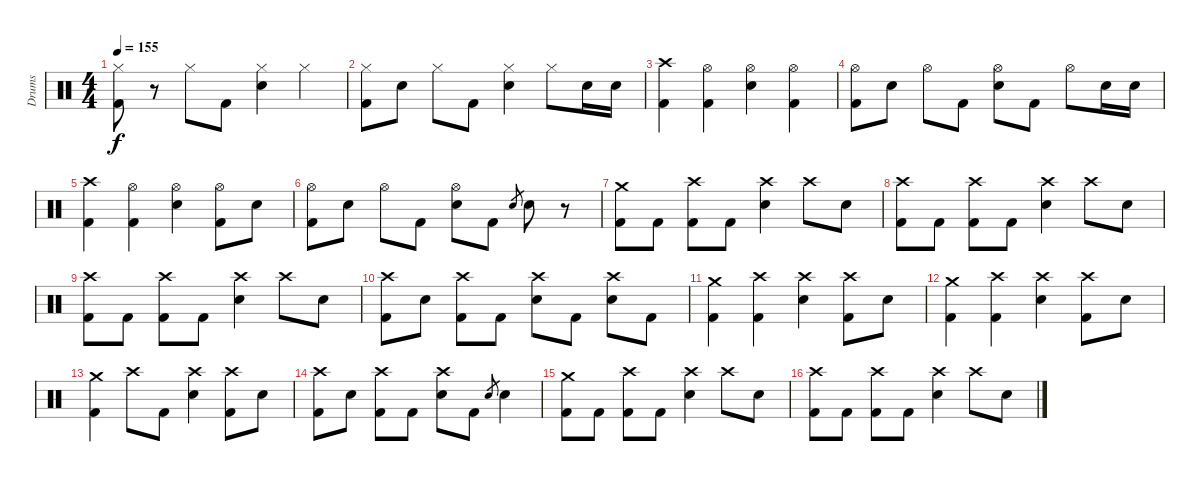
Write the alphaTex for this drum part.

\track ("Drums" "Drums") {instrument percussion}
\staff {score}
\articulation defaults
\ts (4 4)
\tempo 155
\clef neutral
\ks c
("Hi-Hat (closed)" "Kick (hit) 2").8{dy f} r.8 "Hi-Hat (closed)".8 "Kick (hit) 2".8 ("Hi-Hat (closed)" "Snare (hit) 2").4 "Hi-Hat (closed)".4 |
("Hi-Hat (closed)" "Kick (hit) 2").8 "Snare (hit) 2".8 "Hi-Hat (closed)".8 "Kick (hit) 2".8 ("Hi-Hat (closed)" "Snare (hit) 2").4 "Hi-Hat (closed)".8 "Snare (hit) 2".16 "Snare (hit) 2".16 |
("Crash high (hit)" "Kick (hit) 2").4 ("Hi-Hat (open)" "Kick (hit) 2").4 ("Hi-Hat (open)" "Snare (hit) 2").4 ("Hi-Hat (open)" "Kick (hit) 2").4 |
("Hi-Hat (open)" "Kick (hit) 2").8 "Snare (hit) 2".8 "Hi-Hat (open)".8 "Kick (hit) 2".8 ("Hi-Hat (open)" "Snare (hit) 2").8 "Kick (hit) 2".8 "Hi-Hat (open)".8 "Snare (hit) 2".16 "Snare (hit) 2".16 |
("Crash high (hit)" "Kick (hit) 2").4 ("Hi-Hat (open)" "Kick (hit) 2").4 ("Hi-Hat (open)" "Snare (hit) 2").4 ("Hi-Hat (open)" "Kick (hit) 2").8 "Snare (hit) 2".8 |
("Hi-Hat (open)" "Kick (hit) 2").8 "Snare (hit) 2".8 "Hi-Hat (open)".8 "Kick (hit) 2".8 ("Hi-Hat (open)" "Snare (hit) 2").8 "Kick (hit) 2".8 "Snare (hit) 2".8{gr} "Snare (hit) 2".8 r.8 |
("Crash medium (hit)" "Kick (hit) 2").8 "Kick (hit) 2".8 ("Crash high (hit)" "Kick (hit) 2").8 "Kick (hit) 2".8 ("Crash high (hit)" "Snare (hit) 2").4 "Crash high (hit)".8 "Snare (hit) 2".8 |
("Crash high (hit)" "Kick (hit) 2").8 "Kick (hit) 2".8 ("Crash high (hit)" "Kick (hit) 2").8 "Kick (hit) 2".8 ("Crash high (hit)" "Snare (hit) 2").4 "Crash high (hit)".8 "Snare (hit) 2".8 |
("Crash high (hit)" "Kick (hit) 2").8 "Kick (hit) 2".8 ("Crash high (hit)" "Kick (hit) 2").8 "Kick (hit) 2".8 ("Crash high (hit)" "Snare (hit) 2").4 "Crash high (hit)".8 "Snare (hit) 2".8 |
("Crash high (hit)" "Kick (hit) 2").8 "Snare (hit) 2".8 ("Crash high (hit)" "Kick (hit) 2").8 "Kick (hit) 2".8 ("Crash high (hit)" "Snare (hit) 2").8 "Kick (hit) 2".8 ("Crash high (hit)" "Snare (hit) 2").8 "Kick (hit) 2".8 |
("Crash medium (hit)" "Kick (hit) 2").4 ("Crash high (hit)" "Kick (hit) 2").4 ("Crash high (hit)" "Snare (hit) 2").4 ("Crash high (hit)" "Kick (hit) 2").8 "Snare (hit) 2".8 |
("Crash medium (hit)" "Kick (hit) 2").4 ("Crash high (hit)" "Kick (hit) 2").4 ("Crash high (hit)" "Snare (hit) 2").4 ("Crash high (hit)" "Kick (hit) 2").8 "Snare (hit) 2".8 |
("Crash medium (hit)" "Kick (hit) 2").4 "Crash high (hit)".8 "Kick (hit) 2".8 ("Crash high (hit)" "Snare (hit) 2").4 ("Crash high (hit)" "Kick (hit) 2").8 "Snare (hit) 2".8 |
("Crash high (hit)" "Kick (hit) 2").8 "Snare (hit) 2".8 ("Crash high (hit)" "Kick (hit) 2").8 "Kick (hit) 2".8 ("Crash high (hit)" "Snare (hit) 2").8 "Kick (hit) 2".8 "Snare (hit) 2".8{gr} "Snare (hit) 2".4 |
("Crash medium (hit)" "Kick (hit) 2").8 "Kick (hit) 2".8 ("Crash high (hit)" "Kick (hit) 2").8 "Kick (hit) 2".8 ("Crash high (hit)" "Snare (hit) 2").4 "Crash high (hit)".8 "Snare (hit) 2".8 |
("Crash high (hit)" "Kick (hit) 2").8 "Kick (hit) 2".8 ("Crash high (hit)" "Kick (hit) 2").8 "Kick (hit) 2".8 ("Crash high (hit)" "Snare (hit) 2").4 "Crash high (hit)".8 "Snare (hit) 2".8
